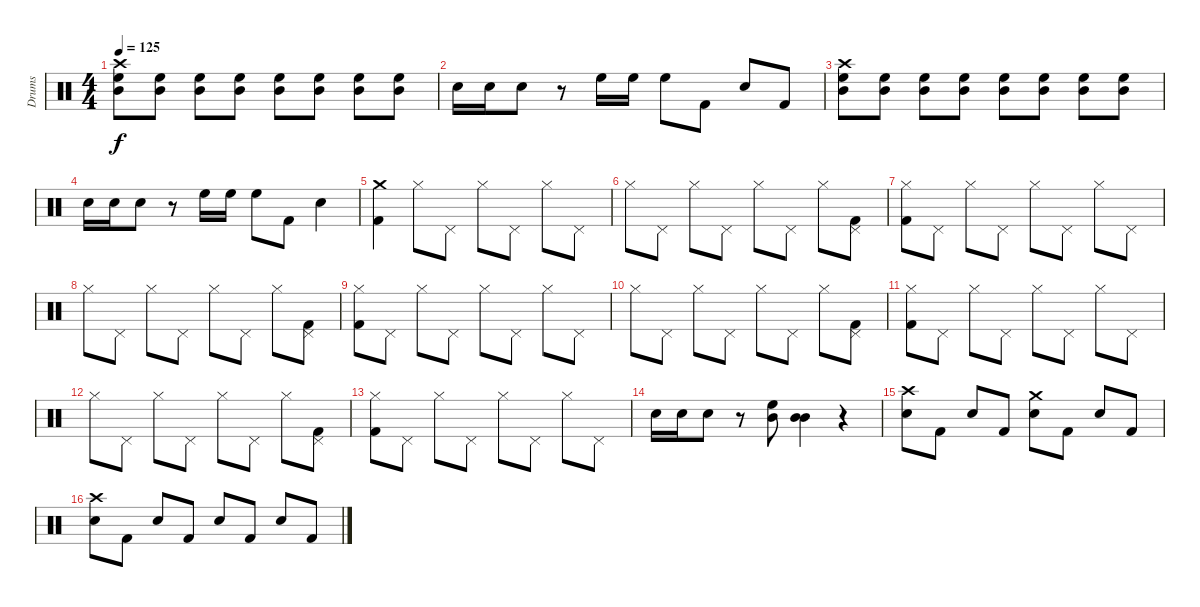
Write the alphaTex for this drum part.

\track ("Drums" "Drums") {instrument percussion}
\staff {score}
\articulation defaults
\ts (4 4)
\tempo 125
\clef neutral
\ks c
("Crash high (hit)" "High Floor Tom (hit)" "Mid Tom (hit)").8{dy f} ("High Floor Tom (hit)" "Mid Tom (hit)").8 ("High Floor Tom (hit)" "Mid Tom (hit)").8 ("High Floor Tom (hit)" "Mid Tom (hit)").8 ("High Floor Tom (hit)" "Mid Tom (hit)").8 ("High Floor Tom (hit)" "Mid Tom (hit)").8 ("High Floor Tom (hit)" "Mid Tom (hit)").8 ("High Floor Tom (hit)" "Mid Tom (hit)").8 |
"Snare (hit) 2".16 "Snare (hit) 2".16 "Snare (hit) 2".8 r.8 "High Floor Tom (hit)".16 "High Floor Tom (hit)".16 "High Floor Tom (hit)".8 "Kick (hit) 2".8 "Snare (hit) 2".8 "Kick (hit) 2".8 |
("Crash high (hit)" "High Floor Tom (hit)" "Mid Tom (hit)").8 ("High Floor Tom (hit)" "Mid Tom (hit)").8 ("High Floor Tom (hit)" "Mid Tom (hit)").8 ("High Floor Tom (hit)" "Mid Tom (hit)").8 ("High Floor Tom (hit)" "Mid Tom (hit)").8 ("High Floor Tom (hit)" "Mid Tom (hit)").8 ("High Floor Tom (hit)" "Mid Tom (hit)").8 ("High Floor Tom (hit)" "Mid Tom (hit)").8 |
"Snare (hit) 2".16 "Snare (hit) 2".16 "Snare (hit) 2".8 r.8 "High Floor Tom (hit)".16 "High Floor Tom (hit)".16 "High Floor Tom (hit)".8 "Kick (hit) 2".8 "Snare (hit) 2".4 |
("Crash medium (hit)" "Kick (hit) 2").4 "Hi-Hat (closed)".8 "Pedal Hi-Hat (hit)".8 "Hi-Hat (closed)".8 "Pedal Hi-Hat (hit)".8 "Hi-Hat (closed)".8 "Pedal Hi-Hat (hit)".8 |
"Hi-Hat (closed)".8 "Pedal Hi-Hat (hit)".8 "Hi-Hat (closed)".8 "Pedal Hi-Hat (hit)".8 "Hi-Hat (closed)".8 "Pedal Hi-Hat (hit)".8 "Hi-Hat (closed)".8 ("Pedal Hi-Hat (hit)" "Kick (hit) 2").8 |
("Hi-Hat (closed)" "Kick (hit) 2").8 "Pedal Hi-Hat (hit)".8 "Hi-Hat (closed)".8 "Pedal Hi-Hat (hit)".8 "Hi-Hat (closed)".8 "Pedal Hi-Hat (hit)".8 "Hi-Hat (closed)".8 "Pedal Hi-Hat (hit)".8 |
"Hi-Hat (closed)".8 "Pedal Hi-Hat (hit)".8 "Hi-Hat (closed)".8 "Pedal Hi-Hat (hit)".8 "Hi-Hat (closed)".8 "Pedal Hi-Hat (hit)".8 "Hi-Hat (closed)".8 ("Pedal Hi-Hat (hit)" "Kick (hit) 2").8 |
("Hi-Hat (closed)" "Kick (hit) 2").8 "Pedal Hi-Hat (hit)".8 "Hi-Hat (closed)".8 "Pedal Hi-Hat (hit)".8 "Hi-Hat (closed)".8 "Pedal Hi-Hat (hit)".8 "Hi-Hat (closed)".8 "Pedal Hi-Hat (hit)".8 |
"Hi-Hat (closed)".8 "Pedal Hi-Hat (hit)".8 "Hi-Hat (closed)".8 "Pedal Hi-Hat (hit)".8 "Hi-Hat (closed)".8 "Pedal Hi-Hat (hit)".8 "Hi-Hat (closed)".8 ("Pedal Hi-Hat (hit)" "Kick (hit) 2").8 |
("Hi-Hat (closed)" "Kick (hit) 2").8 "Pedal Hi-Hat (hit)".8 "Hi-Hat (closed)".8 "Pedal Hi-Hat (hit)".8 "Hi-Hat (closed)".8 "Pedal Hi-Hat (hit)".8 "Hi-Hat (closed)".8 "Pedal Hi-Hat (hit)".8 |
"Hi-Hat (closed)".8 "Pedal Hi-Hat (hit)".8 "Hi-Hat (closed)".8 "Pedal Hi-Hat (hit)".8 "Hi-Hat (closed)".8 "Pedal Hi-Hat (hit)".8 "Hi-Hat (closed)".8 ("Pedal Hi-Hat (hit)" "Kick (hit) 2").8 |
("Hi-Hat (closed)" "Kick (hit) 2").8 "Pedal Hi-Hat (hit)".8 "Hi-Hat (closed)".8 "Pedal Hi-Hat (hit)".8 "Hi-Hat (closed)".8 "Pedal Hi-Hat (hit)".8 "Hi-Hat (closed)".8 "Pedal Hi-Hat (hit)".8 |
"Snare (hit) 2".16 "Snare (hit) 2".16 "Snare (hit) 2".8 r.8 ("High Floor Tom (hit)" "Mid Tom (hit)").8 ("Mid Tom (hit)" "Mid Tom (hit)").4 r.4 |
("Crash high (hit)" "Snare (hit) 2").8 "Kick (hit) 2".8 "Snare (hit) 2".8 "Kick (hit) 2".8 ("Crash medium (hit)" "Snare (hit) 2").8 "Kick (hit) 2".8 "Snare (hit) 2".8 "Kick (hit) 2".8 |
("Crash high (hit)" "Snare (hit) 2").8 "Kick (hit) 2".8 "Snare (hit) 2".8 "Kick (hit) 2".8 "Snare (hit) 2".8 "Kick (hit) 2".8 "Snare (hit) 2".8 "Kick (hit) 2".8
